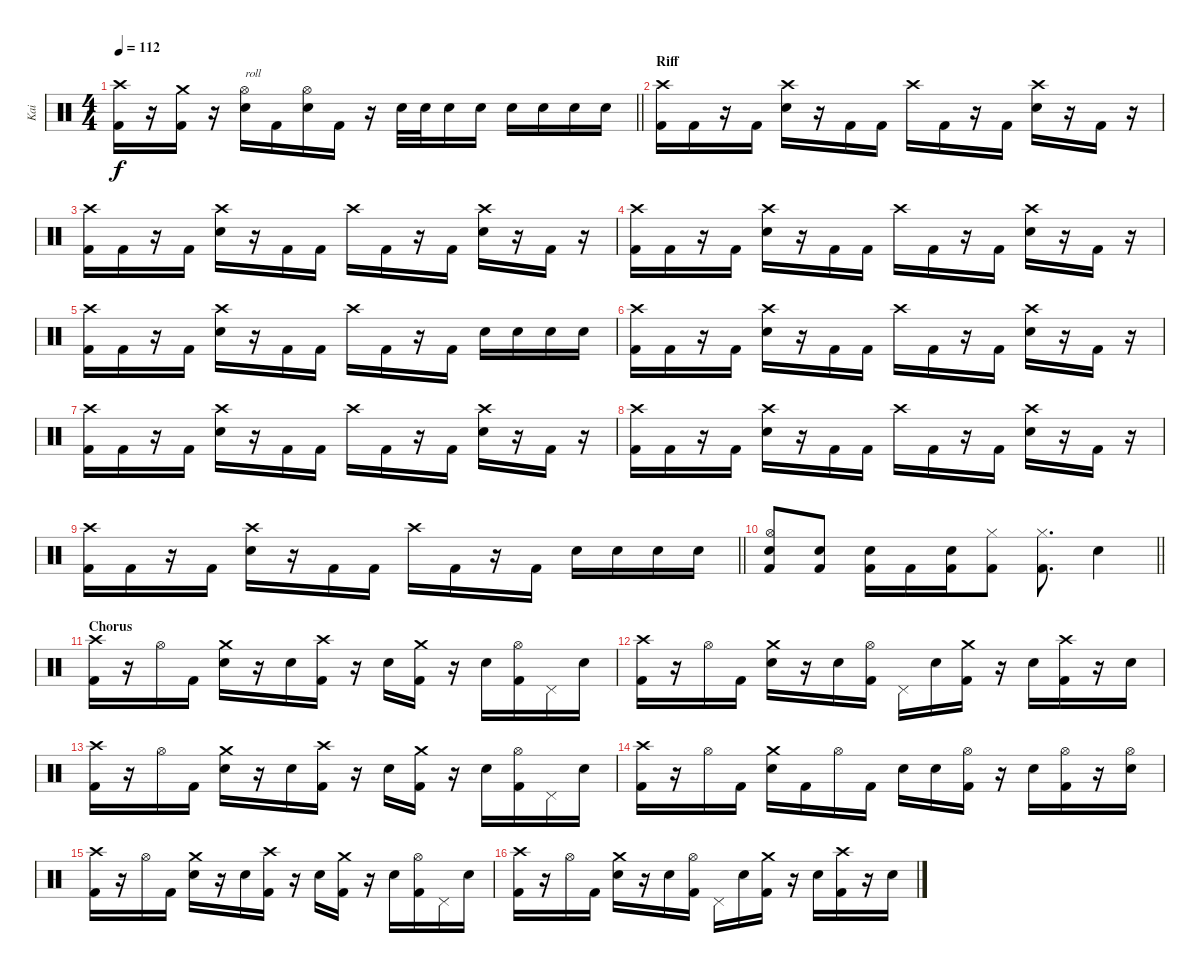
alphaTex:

\track ("Kai" "Kai") {mute instrument percussion}
\staff {score}
\articulation defaults
\ts (4 4)
\tempo 112
\clef neutral
\barLineRight lightlight
\ks c
("Crash high (hit)" "Kick (hit) 2").16{dy f} r.16 ("Crash medium (hit)" "Kick (hit) 2").16 r.16 ("Hi-Hat (open)" "Electric Snare (hit)").16{txt "roll"} "Kick (hit) 2".16 ("Hi-Hat (open)" "Electric Snare (hit)").16 "Kick (hit) 2".16 r.16 "Electric Snare (hit)".32 "Electric Snare (hit)".32 "Electric Snare (hit)".16 "Electric Snare (hit)".16 "Electric Snare (hit)".16 "Electric Snare (hit)".16 "Electric Snare (hit)".16 "Electric Snare (hit)".16 |
\section ("" "Riff")
("Crash high (hit)" "Kick (hit) 2").16 "Kick (hit) 2".16 r.16 "Kick (hit) 2".16 ("Crash high (hit)" "Electric Snare (hit)").16 r.16 "Kick (hit) 2".16 "Kick (hit) 2".16 "Crash high (hit)".16 "Kick (hit) 2".16 r.16 "Kick (hit) 2".16 ("Crash high (hit)" "Electric Snare (hit)").16 r.16 "Kick (hit) 2".16 r.16 |
("Crash high (hit)" "Kick (hit) 2").16 "Kick (hit) 2".16 r.16 "Kick (hit) 2".16 ("Crash high (hit)" "Electric Snare (hit)").16 r.16 "Kick (hit) 2".16 "Kick (hit) 2".16 "Crash high (hit)".16 "Kick (hit) 2".16 r.16 "Kick (hit) 2".16 ("Crash high (hit)" "Electric Snare (hit)").16 r.16 "Kick (hit) 2".16 r.16 |
("Crash high (hit)" "Kick (hit) 2").16 "Kick (hit) 2".16 r.16 "Kick (hit) 2".16 ("Crash high (hit)" "Electric Snare (hit)").16 r.16 "Kick (hit) 2".16 "Kick (hit) 2".16 "Crash high (hit)".16 "Kick (hit) 2".16 r.16 "Kick (hit) 2".16 ("Crash high (hit)" "Electric Snare (hit)").16 r.16 "Kick (hit) 2".16 r.16 |
("Crash high (hit)" "Kick (hit) 2").16 "Kick (hit) 2".16 r.16 "Kick (hit) 2".16 ("Crash high (hit)" "Electric Snare (hit)").16 r.16 "Kick (hit) 2".16 "Kick (hit) 2".16 "Crash high (hit)".16 "Kick (hit) 2".16 r.16 "Kick (hit) 2".16 "Electric Snare (hit)".16 "Electric Snare (hit)".16 "Electric Snare (hit)".16 "Electric Snare (hit)".16 |
("Crash high (hit)" "Kick (hit) 2").16 "Kick (hit) 2".16 r.16 "Kick (hit) 2".16 ("Crash high (hit)" "Electric Snare (hit)").16 r.16 "Kick (hit) 2".16 "Kick (hit) 2".16 "Crash high (hit)".16 "Kick (hit) 2".16 r.16 "Kick (hit) 2".16 ("Crash high (hit)" "Electric Snare (hit)").16 r.16 "Kick (hit) 2".16 r.16 |
("Crash high (hit)" "Kick (hit) 2").16 "Kick (hit) 2".16 r.16 "Kick (hit) 2".16 ("Crash high (hit)" "Electric Snare (hit)").16 r.16 "Kick (hit) 2".16 "Kick (hit) 2".16 "Crash high (hit)".16 "Kick (hit) 2".16 r.16 "Kick (hit) 2".16 ("Crash high (hit)" "Electric Snare (hit)").16 r.16 "Kick (hit) 2".16 r.16 |
("Crash high (hit)" "Kick (hit) 2").16 "Kick (hit) 2".16 r.16 "Kick (hit) 2".16 ("Crash high (hit)" "Electric Snare (hit)").16 r.16 "Kick (hit) 2".16 "Kick (hit) 2".16 "Crash high (hit)".16 "Kick (hit) 2".16 r.16 "Kick (hit) 2".16 ("Crash high (hit)" "Electric Snare (hit)").16 r.16 "Kick (hit) 2".16 r.16 |
\barLineRight lightlight
("Crash high (hit)" "Kick (hit) 2").16 "Kick (hit) 2".16 r.16 "Kick (hit) 2".16 ("Crash high (hit)" "Electric Snare (hit)").16 r.16 "Kick (hit) 2".16 "Kick (hit) 2".16 "Crash high (hit)".16 "Kick (hit) 2".16 r.16 "Kick (hit) 2".16 "Electric Snare (hit)".16 "Electric Snare (hit)".16 "Electric Snare (hit)".16 "Electric Snare (hit)".16 |
\section ("" "")
\barLineRight lightlight
("Hi-Hat (open)" "Electric Snare (hit)" "Kick (hit) 2").8 ("Electric Snare (hit)" "Kick (hit) 2").8 ("Electric Snare (hit)" "Kick (hit) 2").16 "Kick (hit) 2".16 ("Electric Snare (hit)" "Kick (hit) 2").16 ("Hi-Hat (closed)" "Kick (hit) 2").8 ("Hi-Hat (closed)" "Kick (hit) 2").8{d} "Electric Snare (hit)".4 |
\section ("" "Chorus")
("Crash high (hit)" "Kick (hit) 2").16 r.16 "Hi-Hat (open)".16 "Kick (hit) 2".16 ("Crash medium (hit)" "Electric Snare (hit)").16 r.16 "Electric Snare (hit)".16 ("Crash high (hit)" "Kick (hit) 2").16 r.16 "Electric Snare (hit)".16 ("Crash medium (hit)" "Kick (hit) 2").16 r.16 "Electric Snare (hit)".16 ("Hi-Hat (open)" "Kick (hit) 2").16 "Pedal Hi-Hat (hit)".16 "Electric Snare (hit)".16 |
("Crash high (hit)" "Kick (hit) 2").16 r.16 "Hi-Hat (open)".16 "Kick (hit) 2".16 ("Crash medium (hit)" "Electric Snare (hit)").16 r.16 "Electric Snare (hit)".16 ("Hi-Hat (open)" "Kick (hit) 2").16 "Pedal Hi-Hat (hit)".16 "Electric Snare (hit)".16 ("Crash medium (hit)" "Kick (hit) 2").16 r.16 "Electric Snare (hit)".16 ("Crash high (hit)" "Kick (hit) 2").16 r.16 "Electric Snare (hit)".16 |
("Crash high (hit)" "Kick (hit) 2").16 r.16 "Hi-Hat (open)".16 "Kick (hit) 2".16 ("Crash medium (hit)" "Electric Snare (hit)").16 r.16 "Electric Snare (hit)".16 ("Crash high (hit)" "Kick (hit) 2").16 r.16 "Electric Snare (hit)".16 ("Crash medium (hit)" "Kick (hit) 2").16 r.16 "Electric Snare (hit)".16 ("Hi-Hat (open)" "Kick (hit) 2").16 "Pedal Hi-Hat (hit)".16 "Electric Snare (hit)".16 |
("Crash high (hit)" "Kick (hit) 2").16 r.16 "Hi-Hat (open)".16 "Kick (hit) 2".16 ("Crash medium (hit)" "Electric Snare (hit)").16 "Kick (hit) 2".16 "Hi-Hat (open)".16 "Kick (hit) 2".16 "Electric Snare (hit)".16 "Electric Snare (hit)".16 ("Hi-Hat (open)" "Kick (hit) 2").16 r.16 "Electric Snare (hit)".16 ("Hi-Hat (open)" "Kick (hit) 2").16 r.16 ("Hi-Hat (open)" "Electric Snare (hit)").16 |
("Crash high (hit)" "Kick (hit) 2").16 r.16 "Hi-Hat (open)".16 "Kick (hit) 2".16 ("Crash medium (hit)" "Electric Snare (hit)").16 r.16 "Electric Snare (hit)".16 ("Crash high (hit)" "Kick (hit) 2").16 r.16 "Electric Snare (hit)".16 ("Crash medium (hit)" "Kick (hit) 2").16 r.16 "Electric Snare (hit)".16 ("Hi-Hat (open)" "Kick (hit) 2").16 "Pedal Hi-Hat (hit)".16 "Electric Snare (hit)".16 |
("Crash high (hit)" "Kick (hit) 2").16 r.16 "Hi-Hat (open)".16 "Kick (hit) 2".16 ("Crash medium (hit)" "Electric Snare (hit)").16 r.16 "Electric Snare (hit)".16 ("Hi-Hat (open)" "Kick (hit) 2").16 "Pedal Hi-Hat (hit)".16 "Electric Snare (hit)".16 ("Crash medium (hit)" "Kick (hit) 2").16 r.16 "Electric Snare (hit)".16 ("Crash high (hit)" "Kick (hit) 2").16 r.16 "Electric Snare (hit)".16
